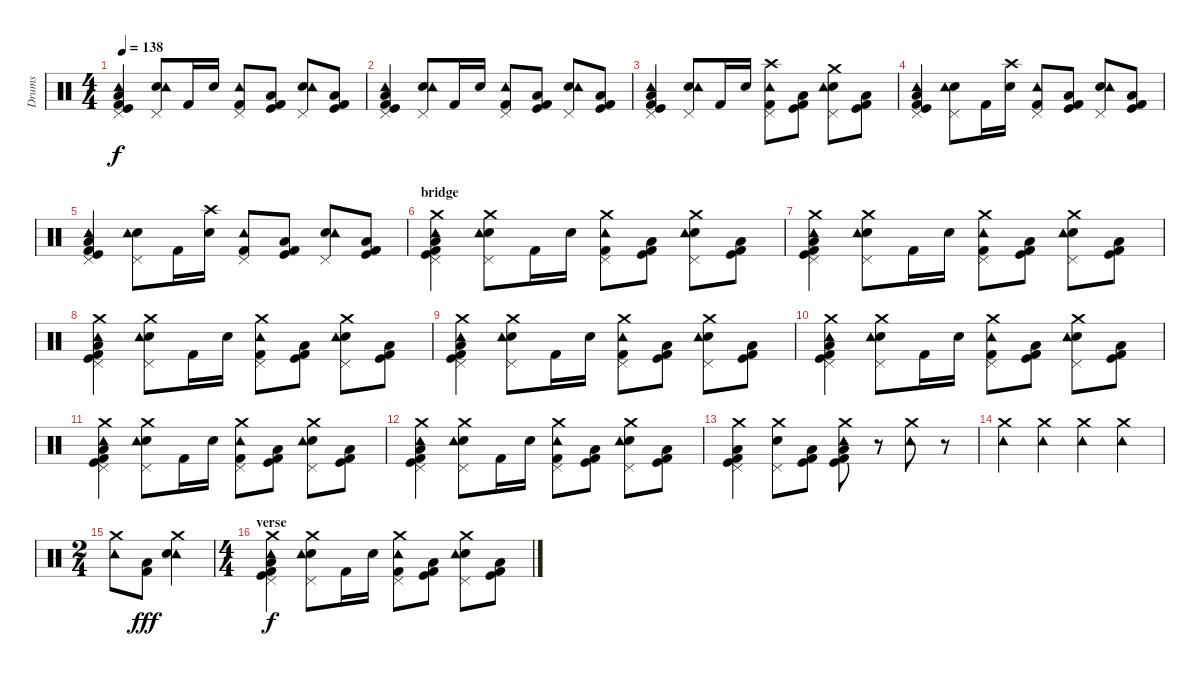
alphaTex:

\track ("Drums" "Drums") {instrument percussion}
\staff {score}
\articulation defaults
\ts (4 4)
\tempo 138
\clef neutral
\ks c
("Pedal Hi-Hat (hit)" "Kick (hit) 2" "Kick (hit)" "Low Floor Tom (hit)" "Tambourine (hit)").4{dy f} ("Pedal Hi-Hat (hit)" "Electric Snare (hit)" "Tambourine (hit)").8 "Kick (hit) 2".16 "Electric Snare (hit)".16 ("Pedal Hi-Hat (hit)" "Kick (hit) 2" "Tambourine (hit)").8 ("Kick (hit) 2" "Kick (hit)" "Low Floor Tom (hit)").8 ("Pedal Hi-Hat (hit)" "Electric Snare (hit)" "Tambourine (hit)").8 ("Kick (hit) 2" "Low Floor Tom (hit)" "Kick (hit)").8 |
("Pedal Hi-Hat (hit)" "Kick (hit) 2" "Kick (hit)" "Low Floor Tom (hit)" "Tambourine (hit)").4 ("Pedal Hi-Hat (hit)" "Electric Snare (hit)" "Tambourine (hit)").8 "Kick (hit) 2".16 "Electric Snare (hit)".16 ("Pedal Hi-Hat (hit)" "Kick (hit) 2" "Tambourine (hit)").8 ("Kick (hit) 2" "Kick (hit)" "Low Floor Tom (hit)").8 ("Pedal Hi-Hat (hit)" "Electric Snare (hit)" "Tambourine (hit)").8 ("Kick (hit) 2" "Low Floor Tom (hit)" "Kick (hit)").8 |
("Pedal Hi-Hat (hit)" "Kick (hit) 2" "Kick (hit)" "Low Floor Tom (hit)" "Tambourine (hit)").4 ("Pedal Hi-Hat (hit)" "Electric Snare (hit)" "Tambourine (hit)").8 "Kick (hit) 2".16 "Electric Snare (hit)".16 ("Crash high (hit)" "Pedal Hi-Hat (hit)" "Kick (hit) 2" "Tambourine (hit)").8 ("Kick (hit) 2" "Kick (hit)" "Low Floor Tom (hit)").8 ("Crash medium (hit)" "Pedal Hi-Hat (hit)" "Electric Snare (hit)" "Tambourine (hit)").8 ("Kick (hit) 2" "Low Floor Tom (hit)" "Kick (hit)").8 |
("Pedal Hi-Hat (hit)" "Kick (hit) 2" "Kick (hit)" "Low Floor Tom (hit)" "Tambourine (hit)").4 ("Pedal Hi-Hat (hit)" "Electric Snare (hit)" "Tambourine (hit)").8 "Kick (hit) 2".16 ("Crash high (hit)" "Electric Snare (hit)").16 ("Pedal Hi-Hat (hit)" "Kick (hit) 2" "Tambourine (hit)").8 ("Kick (hit) 2" "Kick (hit)" "Low Floor Tom (hit)").8 ("Pedal Hi-Hat (hit)" "Electric Snare (hit)" "Tambourine (hit)").8 ("Kick (hit) 2" "Low Floor Tom (hit)" "Kick (hit)").8 |
("Pedal Hi-Hat (hit)" "Kick (hit) 2" "Kick (hit)" "Low Floor Tom (hit)" "Tambourine (hit)").4 ("Pedal Hi-Hat (hit)" "Electric Snare (hit)" "Tambourine (hit)").8 "Kick (hit) 2".16 ("Crash high (hit)" "Electric Snare (hit)").16 ("Pedal Hi-Hat (hit)" "Kick (hit) 2" "Tambourine (hit)").8 ("Kick (hit) 2" "Kick (hit)" "Low Floor Tom (hit)").8 ("Pedal Hi-Hat (hit)" "Electric Snare (hit)" "Tambourine (hit)").8 ("Kick (hit) 2" "Low Floor Tom (hit)" "Kick (hit)").8 |
\section ("" "bridge")
("Crash medium (hit)" "Pedal Hi-Hat (hit)" "Kick (hit) 2" "Kick (hit)" "Low Floor Tom (hit)" "Tambourine (hit)").4 ("Crash medium (hit)" "Pedal Hi-Hat (hit)" "Electric Snare (hit)" "Tambourine (hit)").8 "Kick (hit) 2".16 "Electric Snare (hit)".16 ("Crash medium (hit)" "Pedal Hi-Hat (hit)" "Kick (hit) 2" "Tambourine (hit)").8 ("Kick (hit) 2" "Kick (hit)" "Low Floor Tom (hit)").8 ("Crash medium (hit)" "Pedal Hi-Hat (hit)" "Electric Snare (hit)" "Tambourine (hit)").8 ("Kick (hit) 2" "Low Floor Tom (hit)" "Kick (hit)").8 |
("Crash medium (hit)" "Pedal Hi-Hat (hit)" "Kick (hit) 2" "Kick (hit)" "Low Floor Tom (hit)" "Tambourine (hit)").4 ("Crash medium (hit)" "Pedal Hi-Hat (hit)" "Electric Snare (hit)" "Tambourine (hit)").8 "Kick (hit) 2".16 "Electric Snare (hit)".16 ("Crash medium (hit)" "Pedal Hi-Hat (hit)" "Kick (hit) 2" "Tambourine (hit)").8 ("Kick (hit) 2" "Kick (hit)" "Low Floor Tom (hit)").8 ("Crash medium (hit)" "Pedal Hi-Hat (hit)" "Electric Snare (hit)" "Tambourine (hit)").8 ("Kick (hit) 2" "Low Floor Tom (hit)" "Kick (hit)").8 |
("Crash medium (hit)" "Pedal Hi-Hat (hit)" "Kick (hit) 2" "Kick (hit)" "Low Floor Tom (hit)" "Tambourine (hit)").4 ("Crash medium (hit)" "Pedal Hi-Hat (hit)" "Electric Snare (hit)" "Tambourine (hit)").8 "Kick (hit) 2".16 "Electric Snare (hit)".16 ("Crash medium (hit)" "Pedal Hi-Hat (hit)" "Kick (hit) 2" "Tambourine (hit)").8 ("Kick (hit) 2" "Kick (hit)" "Low Floor Tom (hit)").8 ("Crash medium (hit)" "Pedal Hi-Hat (hit)" "Electric Snare (hit)" "Tambourine (hit)").8 ("Kick (hit) 2" "Low Floor Tom (hit)" "Kick (hit)").8 |
("Crash medium (hit)" "Pedal Hi-Hat (hit)" "Kick (hit) 2" "Kick (hit)" "Low Floor Tom (hit)" "Tambourine (hit)").4 ("Crash medium (hit)" "Pedal Hi-Hat (hit)" "Electric Snare (hit)" "Tambourine (hit)").8 "Kick (hit) 2".16 "Electric Snare (hit)".16 ("Crash medium (hit)" "Pedal Hi-Hat (hit)" "Kick (hit) 2" "Tambourine (hit)").8 ("Kick (hit) 2" "Kick (hit)" "Low Floor Tom (hit)").8 ("Crash medium (hit)" "Pedal Hi-Hat (hit)" "Electric Snare (hit)" "Tambourine (hit)").8 ("Kick (hit) 2" "Low Floor Tom (hit)" "Kick (hit)").8 |
("Crash medium (hit)" "Pedal Hi-Hat (hit)" "Kick (hit) 2" "Kick (hit)" "Low Floor Tom (hit)" "Tambourine (hit)").4 ("Crash medium (hit)" "Pedal Hi-Hat (hit)" "Electric Snare (hit)" "Tambourine (hit)").8 "Kick (hit) 2".16 "Electric Snare (hit)".16 ("Crash medium (hit)" "Pedal Hi-Hat (hit)" "Kick (hit) 2" "Tambourine (hit)").8 ("Kick (hit) 2" "Kick (hit)" "Low Floor Tom (hit)").8 ("Crash medium (hit)" "Pedal Hi-Hat (hit)" "Electric Snare (hit)" "Tambourine (hit)").8 ("Kick (hit) 2" "Low Floor Tom (hit)" "Kick (hit)").8 |
("Crash medium (hit)" "Pedal Hi-Hat (hit)" "Kick (hit) 2" "Kick (hit)" "Low Floor Tom (hit)" "Tambourine (hit)").4 ("Crash medium (hit)" "Pedal Hi-Hat (hit)" "Electric Snare (hit)" "Tambourine (hit)").8 "Kick (hit) 2".16 "Electric Snare (hit)".16 ("Crash medium (hit)" "Pedal Hi-Hat (hit)" "Kick (hit) 2" "Tambourine (hit)").8 ("Kick (hit) 2" "Kick (hit)" "Low Floor Tom (hit)").8 ("Crash medium (hit)" "Pedal Hi-Hat (hit)" "Electric Snare (hit)" "Tambourine (hit)").8 ("Kick (hit) 2" "Low Floor Tom (hit)" "Kick (hit)").8 |
("Crash medium (hit)" "Pedal Hi-Hat (hit)" "Kick (hit) 2" "Kick (hit)" "Low Floor Tom (hit)" "Tambourine (hit)").4 ("Crash medium (hit)" "Pedal Hi-Hat (hit)" "Electric Snare (hit)" "Tambourine (hit)").8 "Kick (hit) 2".16 "Electric Snare (hit)".16 ("Crash medium (hit)" "Pedal Hi-Hat (hit)" "Kick (hit) 2" "Tambourine (hit)").8 ("Kick (hit) 2" "Kick (hit)" "Low Floor Tom (hit)").8 ("Crash medium (hit)" "Pedal Hi-Hat (hit)" "Electric Snare (hit)" "Tambourine (hit)").8 ("Kick (hit) 2" "Low Floor Tom (hit)" "Kick (hit)").8 |
("Crash medium (hit)" "Pedal Hi-Hat (hit)" "Kick (hit) 2" "Kick (hit)" "Low Floor Tom (hit)").4 ("Crash medium (hit)" "Pedal Hi-Hat (hit)" "Electric Snare (hit)").8 ("Kick (hit) 2" "Kick (hit)" "Low Floor Tom (hit)").8 ("Crash medium (hit)" "Tambourine (hit)" "Kick (hit) 2" "Kick (hit)" "Low Floor Tom (hit)").8 r.8 ("Crash medium (hit)" "Tambourine (hit)").8 r.8 |
("Crash medium (hit)" "Tambourine (hit)").4 ("Crash medium (hit)" "Tambourine (hit)").4 ("Crash medium (hit)" "Tambourine (hit)").4 ("Crash medium (hit)" "Tambourine (hit)").4 |
\ts (2 4)
("Crash medium (hit)" "Tambourine (hit)").8 ("Kick (hit) 2" "Low Floor Tom (hit)").8{dy fff} ("Crash medium (hit)" "Tambourine (hit)" "Electric Snare (hit)").4 |
\ts (4 4)
\section ("" "verse")
("Crash medium (hit)" "Pedal Hi-Hat (hit)" "Kick (hit) 2" "Kick (hit)" "Low Floor Tom (hit)" "Tambourine (hit)").4{dy f} ("Crash medium (hit)" "Pedal Hi-Hat (hit)" "Electric Snare (hit)" "Tambourine (hit)").8 "Kick (hit) 2".16 "Electric Snare (hit)".16 ("Crash medium (hit)" "Pedal Hi-Hat (hit)" "Kick (hit) 2" "Tambourine (hit)").8 ("Kick (hit) 2" "Kick (hit)" "Low Floor Tom (hit)").8 ("Crash medium (hit)" "Pedal Hi-Hat (hit)" "Electric Snare (hit)" "Tambourine (hit)").8 ("Kick (hit) 2" "Low Floor Tom (hit)" "Kick (hit)").8
